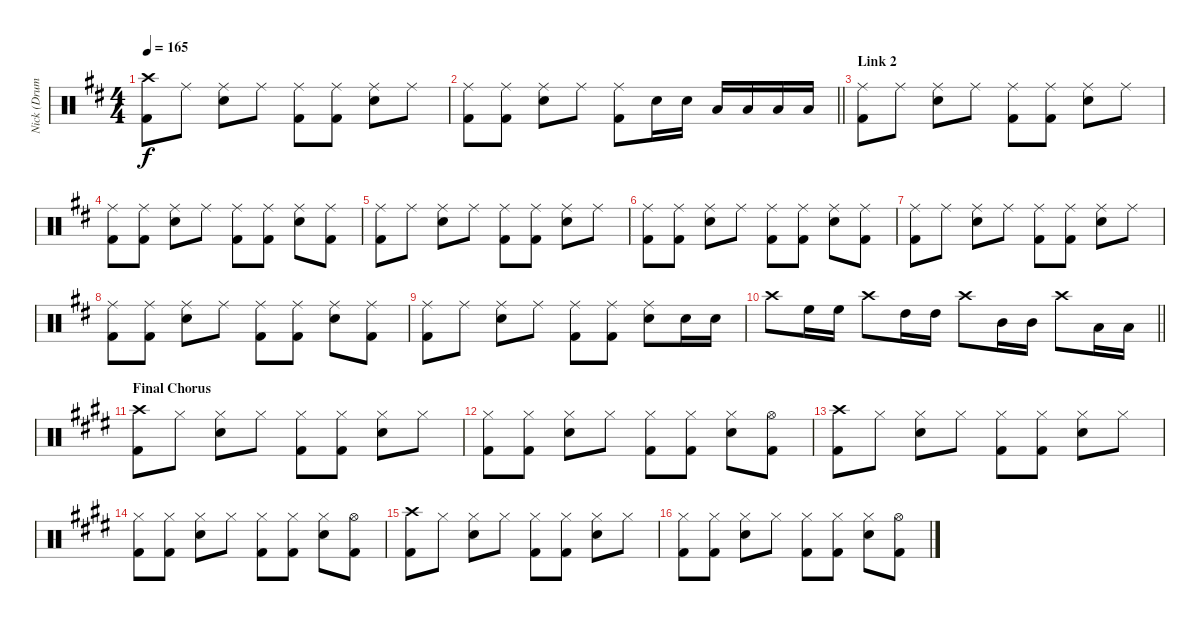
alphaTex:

\track ("Nick (Drums)" "Nick (Drum") {instrument percussion}
\staff {score}
\articulation defaults
\ts (4 4)
\tempo 165
\clef neutral
\ks d
("Crash high (hit)" "Kick (hit) 2").8{dy f} "Ride (middle)".8 ("Ride (middle)" "Snare (hit) 2").8 "Ride (middle)".8 ("Ride (middle)" "Kick (hit) 2").8 ("Ride (middle)" "Kick (hit) 2").8 ("Ride (middle)" "Snare (hit) 2").8 "Ride (middle)".8 |
\barLineRight lightlight
("Kick (hit) 2" "Ride (middle)").8 ("Ride (middle)" "Kick (hit) 2").8 ("Ride (middle)" "Snare (hit) 2").8 "Ride (middle)".8 ("Ride (middle)" "Kick (hit) 2").8 "Snare (hit) 2".16 "Snare (hit) 2".16 "Low Tom (hit)".16 "Low Tom (hit)".16 "Low Tom (hit)".16 "Low Tom (hit)".16 |
\section ("" "Link 2")
("Kick (hit) 2" "Ride (middle)").8 "Ride (middle)".8 ("Ride (middle)" "Snare (hit) 2").8 "Ride (middle)".8 ("Ride (middle)" "Kick (hit) 2").8 ("Ride (middle)" "Kick (hit) 2").8 ("Ride (middle)" "Snare (hit) 2").8 "Ride (middle)".8 |
("Kick (hit) 2" "Ride (middle)").8 ("Ride (middle)" "Kick (hit) 2").8 ("Ride (middle)" "Snare (hit) 2").8 "Ride (middle)".8 ("Ride (middle)" "Kick (hit) 2").8 ("Ride (middle)" "Kick (hit) 2").8 ("Ride (middle)" "Snare (hit) 2").8 ("Ride (middle)" "Kick (hit) 2").8 |
("Kick (hit) 2" "Ride (middle)").8 "Ride (middle)".8 ("Ride (middle)" "Snare (hit) 2").8 "Ride (middle)".8 ("Ride (middle)" "Kick (hit) 2").8 ("Ride (middle)" "Kick (hit) 2").8 ("Ride (middle)" "Snare (hit) 2").8 "Ride (middle)".8 |
("Kick (hit) 2" "Ride (middle)").8 ("Ride (middle)" "Kick (hit) 2").8 ("Ride (middle)" "Snare (hit) 2").8 "Ride (middle)".8 ("Ride (middle)" "Kick (hit) 2").8 ("Ride (middle)" "Kick (hit) 2").8 ("Ride (middle)" "Snare (hit) 2").8 ("Ride (middle)" "Kick (hit) 2").8 |
("Kick (hit) 2" "Ride (middle)").8 "Ride (middle)".8 ("Ride (middle)" "Snare (hit) 2").8 "Ride (middle)".8 ("Ride (middle)" "Kick (hit) 2").8 ("Ride (middle)" "Kick (hit) 2").8 ("Ride (middle)" "Snare (hit) 2").8 "Ride (middle)".8 |
("Kick (hit) 2" "Ride (middle)").8 ("Ride (middle)" "Kick (hit) 2").8 ("Ride (middle)" "Snare (hit) 2").8 "Ride (middle)".8 ("Ride (middle)" "Kick (hit) 2").8 ("Ride (middle)" "Kick (hit) 2").8 ("Ride (middle)" "Snare (hit) 2").8 ("Ride (middle)" "Kick (hit) 2").8 |
("Kick (hit) 2" "Ride (middle)").8 "Ride (middle)".8 ("Ride (middle)" "Snare (hit) 2").8 "Ride (middle)".8 ("Ride (middle)" "Kick (hit) 2").8 ("Ride (middle)" "Kick (hit) 2").8 ("Ride (middle)" "Snare (hit) 2").8 "Snare (hit) 2".16 "Snare (hit) 2".16 |
\barLineRight lightlight "Crash high (hit)".8 "High Floor Tom (hit)".16 "High Floor Tom (hit)".16 "Crash high (hit)".8 "High Tom (hit)".16 "High Tom (hit)".16 "Crash high (hit)".8 "Mid Tom (hit)".16 "Mid Tom (hit)".16 "Crash high (hit)".8 "Low Tom (hit)".16 "Low Tom (hit)".16
|
\section ("" "Final Chorus")
\ks e
("Crash high (hit)" "Kick (hit) 2").8 "Hi-Hat (closed)".8 ("Hi-Hat (closed)" "Snare (hit) 2").8 "Hi-Hat (closed)".8 ("Hi-Hat (closed)" "Kick (hit) 2").8 ("Hi-Hat (closed)" "Kick (hit) 2").8 ("Hi-Hat (closed)" "Snare (hit) 2").8 "Hi-Hat (closed)".8 |
("Kick (hit) 2" "Hi-Hat (closed)").8 ("Hi-Hat (closed)" "Kick (hit) 2").8 ("Hi-Hat (closed)" "Snare (hit) 2").8 "Hi-Hat (closed)".8 ("Hi-Hat (closed)" "Kick (hit) 2").8 ("Hi-Hat (closed)" "Kick (hit) 2").8 ("Hi-Hat (closed)" "Snare (hit) 2").8 ("Hi-Hat (open)" "Kick (hit) 2").8 |
("Crash high (hit)" "Kick (hit) 2").8 "Hi-Hat (closed)".8 ("Hi-Hat (closed)" "Snare (hit) 2").8 "Hi-Hat (closed)".8 ("Hi-Hat (closed)" "Kick (hit) 2").8 ("Hi-Hat (closed)" "Kick (hit) 2").8 ("Hi-Hat (closed)" "Snare (hit) 2").8 "Hi-Hat (closed)".8 |
("Kick (hit) 2" "Hi-Hat (closed)").8 ("Hi-Hat (closed)" "Kick (hit) 2").8 ("Hi-Hat (closed)" "Snare (hit) 2").8 "Hi-Hat (closed)".8 ("Hi-Hat (closed)" "Kick (hit) 2").8 ("Hi-Hat (closed)" "Kick (hit) 2").8 ("Hi-Hat (closed)" "Snare (hit) 2").8 ("Hi-Hat (open)" "Kick (hit) 2").8 |
("Crash high (hit)" "Kick (hit) 2").8 "Hi-Hat (closed)".8 ("Hi-Hat (closed)" "Snare (hit) 2").8 "Hi-Hat (closed)".8 ("Hi-Hat (closed)" "Kick (hit) 2").8 ("Hi-Hat (closed)" "Kick (hit) 2").8 ("Hi-Hat (closed)" "Snare (hit) 2").8 "Hi-Hat (closed)".8 |
("Kick (hit) 2" "Hi-Hat (closed)").8 ("Hi-Hat (closed)" "Kick (hit) 2").8 ("Hi-Hat (closed)" "Snare (hit) 2").8 "Hi-Hat (closed)".8 ("Hi-Hat (closed)" "Kick (hit) 2").8 ("Hi-Hat (closed)" "Kick (hit) 2").8 ("Hi-Hat (closed)" "Snare (hit) 2").8 ("Hi-Hat (open)" "Kick (hit) 2").8
